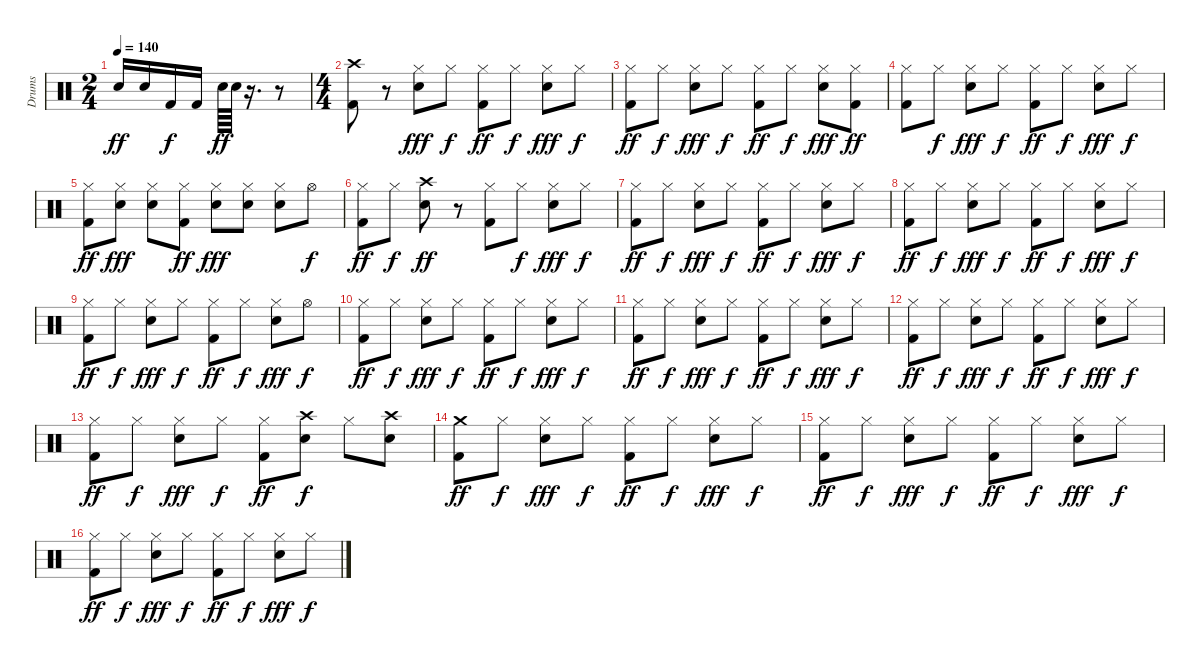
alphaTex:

\track ("Drums" "Drums") {instrument percussion}
\staff {score}
\articulation defaults
\ts (2 4)
\tempo 140
\clef neutral
\ks c "Snare (hit) 2".16{dy ff} "Snare (hit) 2".16 "Kick (hit) 2".16{dy f} "Kick (hit) 2".16 "Snare (hit) 2".64{dy ff} "Snare (hit) 2".64
r.16{d} r.8 |
\ts (4 4)
("Crash high (hit)" "Kick (hit) 2").8 r.8 ("Hi-Hat (closed)" "Snare (hit) 2").8{dy fff} "Hi-Hat (closed)".8{dy f} ("Hi-Hat (closed)" "Kick (hit) 2").8{dy ff} "Hi-Hat (closed)".8{dy f} ("Hi-Hat (closed)" "Snare (hit) 2").8{dy fff} "Hi-Hat (closed)".8{dy f} |
("Hi-Hat (closed)" "Kick (hit) 2").8{dy ff} "Hi-Hat (closed)".8{dy f} ("Hi-Hat (closed)" "Snare (hit) 2").8{dy fff} "Hi-Hat (closed)".8{dy f} ("Hi-Hat (closed)" "Kick (hit) 2").8{dy ff} "Hi-Hat (closed)".8{dy f} ("Hi-Hat (closed)" "Snare (hit) 2").8{dy fff} ("Hi-Hat (closed)" "Kick (hit) 2").8{dy ff} |
("Hi-Hat (closed)" "Kick (hit) 2").8 "Hi-Hat (closed)".8{dy f} ("Hi-Hat (closed)" "Snare (hit) 2").8{dy fff} "Hi-Hat (closed)".8{dy f} ("Hi-Hat (closed)" "Kick (hit) 2").8{dy ff} "Hi-Hat (closed)".8{dy f} ("Hi-Hat (closed)" "Snare (hit) 2").8{dy fff} "Hi-Hat (closed)".8{dy f} |
("Hi-Hat (closed)" "Kick (hit) 2").8{dy ff} ("Hi-Hat (closed)" "Snare (hit) 2").8{dy fff} ("Hi-Hat (closed)" "Snare (hit) 2").8 ("Hi-Hat (closed)" "Kick (hit) 2").8{dy ff} ("Hi-Hat (closed)" "Snare (hit) 2").8{dy fff} ("Hi-Hat (closed)" "Snare (hit) 2").8 ("Hi-Hat (closed)" "Snare (hit) 2").8 "Hi-Hat (open)".8{dy f} |
("Hi-Hat (closed)" "Kick (hit) 2").8{dy ff} "Hi-Hat (closed)".8{dy f} ("Crash high (hit)" "Snare (hit) 2").8{dy ff} r.8 ("Hi-Hat (closed)" "Kick (hit) 2").8 "Hi-Hat (closed)".8{dy f} ("Hi-Hat (closed)" "Snare (hit) 2").8{dy fff} "Hi-Hat (closed)".8{dy f} |
("Hi-Hat (closed)" "Kick (hit) 2").8{dy ff} "Hi-Hat (closed)".8{dy f} ("Hi-Hat (closed)" "Snare (hit) 2").8{dy fff} "Hi-Hat (closed)".8{dy f} ("Hi-Hat (closed)" "Kick (hit) 2").8{dy ff} "Hi-Hat (closed)".8{dy f} ("Hi-Hat (closed)" "Snare (hit) 2").8{dy fff} "Hi-Hat (closed)".8{dy f} |
("Hi-Hat (closed)" "Kick (hit) 2").8{dy ff} "Hi-Hat (closed)".8{dy f} ("Hi-Hat (closed)" "Snare (hit) 2").8{dy fff} "Hi-Hat (closed)".8{dy f} ("Hi-Hat (closed)" "Kick (hit) 2").8{dy ff} "Hi-Hat (closed)".8{dy f} ("Hi-Hat (closed)" "Snare (hit) 2").8{dy fff} "Hi-Hat (closed)".8{dy f} |
("Hi-Hat (closed)" "Kick (hit) 2").8{dy ff} "Hi-Hat (closed)".8{dy f} ("Hi-Hat (closed)" "Snare (hit) 2").8{dy fff} "Hi-Hat (closed)".8{dy f} ("Hi-Hat (closed)" "Kick (hit) 2").8{dy ff} "Hi-Hat (closed)".8{dy f} ("Hi-Hat (closed)" "Snare (hit) 2").8{dy fff} "Hi-Hat (open)".8{dy f} |
("Hi-Hat (closed)" "Kick (hit) 2").8{dy ff} "Hi-Hat (closed)".8{dy f} ("Hi-Hat (closed)" "Snare (hit) 2").8{dy fff} "Hi-Hat (closed)".8{dy f} ("Hi-Hat (closed)" "Kick (hit) 2").8{dy ff} "Hi-Hat (closed)".8{dy f} ("Hi-Hat (closed)" "Snare (hit) 2").8{dy fff} "Hi-Hat (closed)".8{dy f} |
("Hi-Hat (closed)" "Kick (hit) 2").8{dy ff} "Hi-Hat (closed)".8{dy f} ("Hi-Hat (closed)" "Snare (hit) 2").8{dy fff} "Hi-Hat (closed)".8{dy f} ("Hi-Hat (closed)" "Kick (hit) 2").8{dy ff} "Hi-Hat (closed)".8{dy f} ("Hi-Hat (closed)" "Snare (hit) 2").8{dy fff} "Hi-Hat (closed)".8{dy f} |
("Hi-Hat (closed)" "Kick (hit) 2").8{dy ff} "Hi-Hat (closed)".8{dy f} ("Hi-Hat (closed)" "Snare (hit) 2").8{dy fff} "Hi-Hat (closed)".8{dy f} ("Hi-Hat (closed)" "Kick (hit) 2").8{dy ff} "Hi-Hat (closed)".8{dy f} ("Hi-Hat (closed)" "Snare (hit) 2").8{dy fff} "Hi-Hat (closed)".8{dy f} |
("Hi-Hat (closed)" "Kick (hit) 2").8{dy ff} "Hi-Hat (closed)".8{dy f} ("Hi-Hat (closed)" "Snare (hit) 2").8{dy fff} "Hi-Hat (closed)".8{dy f} ("Hi-Hat (closed)" "Kick (hit) 2").8{dy ff} ("Crash high (hit)" "Snare (hit) 2").8{dy f} "Hi-Hat (closed)".8 ("Crash high (hit)" "Snare (hit) 2").8 |
("Crash medium (hit)" "Kick (hit) 2").8{dy ff} "Hi-Hat (closed)".8{dy f} ("Hi-Hat (closed)" "Snare (hit) 2").8{dy fff} "Hi-Hat (closed)".8{dy f} ("Hi-Hat (closed)" "Kick (hit) 2").8{dy ff} "Hi-Hat (closed)".8{dy f} ("Hi-Hat (closed)" "Snare (hit) 2").8{dy fff} "Hi-Hat (closed)".8{dy f} |
("Hi-Hat (closed)" "Kick (hit) 2").8{dy ff} "Hi-Hat (closed)".8{dy f} ("Hi-Hat (closed)" "Snare (hit) 2").8{dy fff} "Hi-Hat (closed)".8{dy f} ("Hi-Hat (closed)" "Kick (hit) 2").8{dy ff} "Hi-Hat (closed)".8{dy f} ("Hi-Hat (closed)" "Snare (hit) 2").8{dy fff} "Hi-Hat (closed)".8{dy f} |
("Hi-Hat (closed)" "Kick (hit) 2").8{dy ff} "Hi-Hat (closed)".8{dy f} ("Hi-Hat (closed)" "Snare (hit) 2").8{dy fff} "Hi-Hat (closed)".8{dy f} ("Hi-Hat (closed)" "Kick (hit) 2").8{dy ff} "Hi-Hat (closed)".8{dy f} ("Hi-Hat (closed)" "Snare (hit) 2").8{dy fff} "Hi-Hat (closed)".8{dy f}
